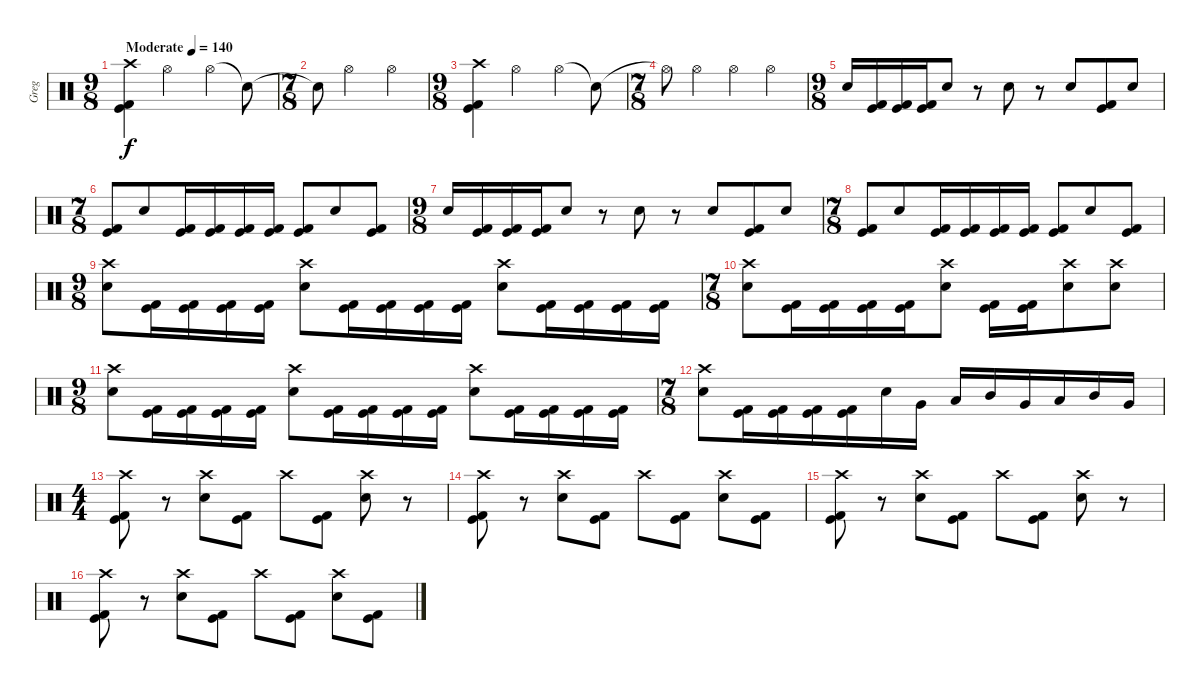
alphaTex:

\track ("Greg" "Greg") {instrument percussion}
\staff {score}
\articulation defaults
\ts (9 8)
\tempo (140 "Moderate")
\clef neutral
\ks c
("Crash high (hit)" "Kick (hit)" "Kick (hit) 2").4{dy f} "Hi-Hat (open)".2 "Hi-Hat (open)".4 "Snare (hit)"{t}.8 |
\ts (7 8)
"Snare (hit)"{t}.8 "Hi-Hat (open)".2 "Hi-Hat (open)".4 |
\ts (9 8)
("Crash high (hit)" "Kick (hit)" "Kick (hit) 2").4 "Hi-Hat (open)".2 "Hi-Hat (open)".4 "Snare (hit)"{t}.8 |
\ts (7 8)
"Hi-Hat (open)"{t}.8 "Hi-Hat (open)".4 "Hi-Hat (open)".4 "Hi-Hat (open)".4 |
\ts (9 8)
"Snare (hit) 2".16 ("Kick (hit)" "Kick (hit) 2").16 ("Kick (hit)" "Kick (hit) 2").16 ("Kick (hit)" "Kick (hit) 2").16 "Snare (hit) 2".8 r.8 "Snare (hit) 2".8 r.8 "Snare (hit) 2".8 ("Kick (hit)" "Kick (hit) 2").8 "Snare (hit) 2".8 |
\ts (7 8)
("Kick (hit)" "Kick (hit) 2").8 "Snare (hit) 2".8 ("Kick (hit)" "Kick (hit) 2").16 ("Kick (hit)" "Kick (hit) 2").16 ("Kick (hit)" "Kick (hit) 2").16 ("Kick (hit)" "Kick (hit) 2").16 ("Kick (hit)" "Kick (hit) 2").8 "Snare (hit) 2".8 ("Kick (hit)" "Kick (hit) 2").8 |
\ts (9 8)
"Snare (hit) 2".16 ("Kick (hit)" "Kick (hit) 2").16 ("Kick (hit)" "Kick (hit) 2").16 ("Kick (hit)" "Kick (hit) 2").16 "Snare (hit) 2".8 r.8 "Snare (hit) 2".8 r.8 "Snare (hit) 2".8 ("Kick (hit)" "Kick (hit) 2").8 "Snare (hit) 2".8 |
\ts (7 8)
("Kick (hit)" "Kick (hit) 2").8 "Snare (hit) 2".8 ("Kick (hit)" "Kick (hit) 2").16 ("Kick (hit)" "Kick (hit) 2").16 ("Kick (hit)" "Kick (hit) 2").16 ("Kick (hit)" "Kick (hit) 2").16 ("Kick (hit)" "Kick (hit) 2").8 "Snare (hit) 2".8 ("Kick (hit)" "Kick (hit) 2").8 |
\ts (9 8)
("Crash high (hit)" "Snare (hit) 2").8 ("Kick (hit)" "Kick (hit) 2").16 ("Kick (hit)" "Kick (hit) 2").16 ("Kick (hit)" "Kick (hit) 2").16 ("Kick (hit)" "Kick (hit) 2").16 ("Crash high (hit)" "Snare (hit) 2").8 ("Kick (hit)" "Kick (hit) 2").16 ("Kick (hit)" "Kick (hit) 2").16 ("Kick (hit)" "Kick (hit) 2").16 ("Kick (hit)" "Kick (hit) 2").16 ("Crash high (hit)" "Snare (hit) 2").8 ("Kick (hit)" "Kick (hit) 2").16 ("Kick (hit)" "Kick (hit) 2").16 ("Kick (hit)" "Kick (hit) 2").16 ("Kick (hit)" "Kick (hit) 2").16 |
\ts (7 8)
("Crash high (hit)" "Snare (hit) 2").8 ("Kick (hit)" "Kick (hit) 2").16 ("Kick (hit)" "Kick (hit) 2").16 ("Kick (hit)" "Kick (hit) 2").16 ("Kick (hit)" "Kick (hit) 2").16 ("Crash high (hit)" "Snare (hit) 2").8 ("Kick (hit)" "Kick (hit) 2").16 ("Kick (hit)" "Kick (hit) 2").16 ("Crash high (hit)" "Snare (hit) 2").8 ("Crash high (hit)" "Snare (hit) 2").8 |
\ts (9 8)
("Crash high (hit)" "Snare (hit) 2").8 ("Kick (hit)" "Kick (hit) 2").16 ("Kick (hit)" "Kick (hit) 2").16 ("Kick (hit)" "Kick (hit) 2").16 ("Kick (hit)" "Kick (hit) 2").16 ("Crash high (hit)" "Snare (hit) 2").8 ("Kick (hit)" "Kick (hit) 2").16 ("Kick (hit)" "Kick (hit) 2").16 ("Kick (hit)" "Kick (hit) 2").16 ("Kick (hit)" "Kick (hit) 2").16 ("Crash high (hit)" "Snare (hit) 2").8 ("Kick (hit)" "Kick (hit) 2").16 ("Kick (hit)" "Kick (hit) 2").16 ("Kick (hit)" "Kick (hit) 2").16 ("Kick (hit)" "Kick (hit) 2").16 |
\ts (7 8)
("Crash high (hit)" "Snare (hit) 2").8 ("Kick (hit)" "Kick (hit) 2").16 ("Kick (hit)" "Kick (hit) 2").16 ("Kick (hit)" "Kick (hit) 2").16 ("Kick (hit)" "Kick (hit) 2").16 "Snare (hit) 2".16 "Very Low Tom (hit)".16 "Low Tom (hit)".16 "Mid Tom (hit)".16 "Very Low Tom (hit)".16 "Low Tom (hit)".16 "Mid Tom (hit)".16 "Very Low Tom (hit)".16 |
\ts (4 4)
("Crash high (hit)" "Kick (hit)" "Kick (hit) 2").8 r.8 ("Crash high (hit)" "Snare (hit) 2").8 ("Kick (hit)" "Kick (hit) 2").8 "Crash high (hit)".8 ("Kick (hit)" "Kick (hit) 2").8 ("Crash high (hit)" "Snare (hit) 2").8 r.8 |
("Crash high (hit)" "Kick (hit)" "Kick (hit) 2").8 r.8 ("Crash high (hit)" "Snare (hit) 2").8 ("Kick (hit)" "Kick (hit) 2").8 "Crash high (hit)".8 ("Kick (hit)" "Kick (hit) 2").8 ("Crash high (hit)" "Snare (hit) 2").8 ("Kick (hit)" "Kick (hit) 2").8 |
("Crash high (hit)" "Kick (hit)" "Kick (hit) 2").8 r.8 ("Crash high (hit)" "Snare (hit) 2").8 ("Kick (hit)" "Kick (hit) 2").8 "Crash high (hit)".8 ("Kick (hit)" "Kick (hit) 2").8 ("Crash high (hit)" "Snare (hit) 2").8 r.8 |
("Crash high (hit)" "Kick (hit)" "Kick (hit) 2").8 r.8 ("Crash high (hit)" "Snare (hit) 2").8 ("Kick (hit)" "Kick (hit) 2").8 "Crash high (hit)".8 ("Kick (hit)" "Kick (hit) 2").8 ("Crash high (hit)" "Snare (hit) 2").8 ("Kick (hit)" "Kick (hit) 2").8
